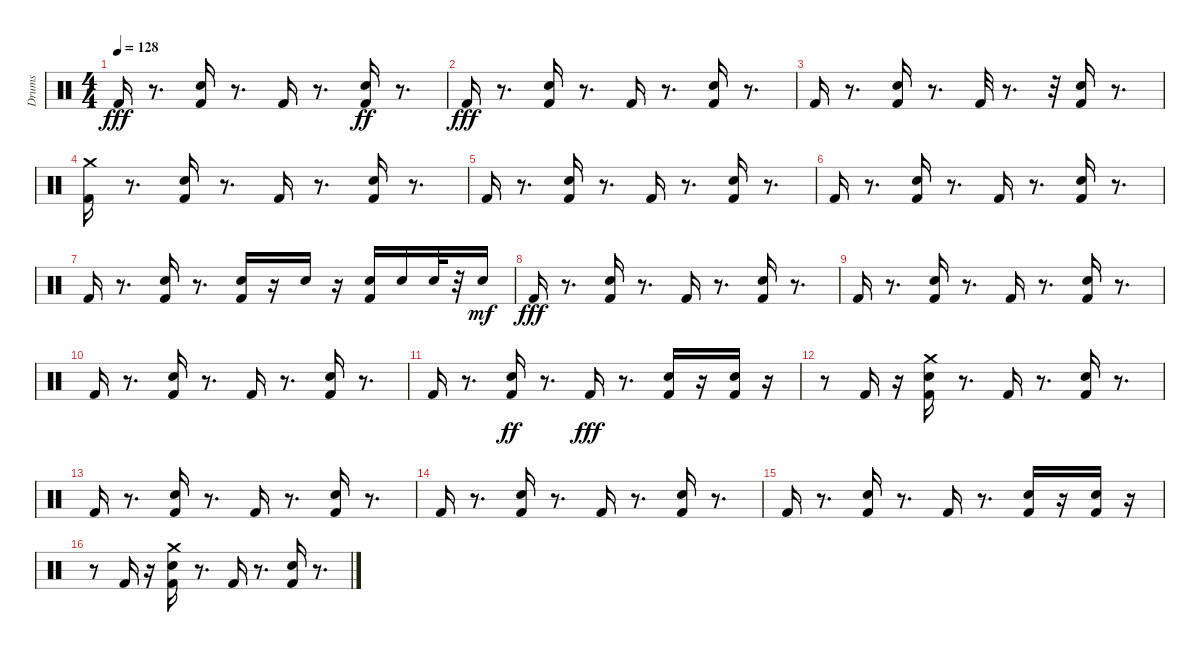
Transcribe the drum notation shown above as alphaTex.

\track ("Drums" "Drums") {instrument percussion}
\staff {score}
\articulation defaults
\ts (4 4)
\tempo 128
\clef neutral
\ks c "Kick (hit) 2".16{dy fff}
r.8{d} ("Kick (hit) 2" "Electric Snare (hit)").16 r.8{d} "Kick (hit) 2".16 r.8{d} ("Kick (hit) 2" "Electric Snare (hit)").16{dy ff} r.8{d} |
"Kick (hit) 2".16{dy fff} r.8{d} ("Kick (hit) 2" "Electric Snare (hit)").16 r.8{d} "Kick (hit) 2".16 r.8{d} ("Kick (hit) 2" "Electric Snare (hit)").16 r.8{d} |
"Kick (hit) 2".16 r.8{d} ("Kick (hit) 2" "Electric Snare (hit)").16 r.8{d} "Kick (hit) 2".32 r.8{d} r.32 ("Kick (hit) 2" "Electric Snare (hit)").16 r.8{d} |
("Crash medium (hit)" "Kick (hit) 2").16 r.8{d} ("Kick (hit) 2" "Electric Snare (hit)").16 r.8{d} "Kick (hit) 2".16 r.8{d} ("Kick (hit) 2" "Electric Snare (hit)").16 r.8{d} |
"Kick (hit) 2".16 r.8{d} ("Kick (hit) 2" "Electric Snare (hit)").16 r.8{d} "Kick (hit) 2".16 r.8{d} ("Kick (hit) 2" "Electric Snare (hit)").16 r.8{d} |
"Kick (hit) 2".16 r.8{d} ("Kick (hit) 2" "Electric Snare (hit)").16 r.8{d} "Kick (hit) 2".16 r.8{d} ("Kick (hit) 2" "Electric Snare (hit)").16 r.8{d} |
"Kick (hit) 2".16 r.8{d} ("Kick (hit) 2" "Electric Snare (hit)").16 r.8{d} ("Kick (hit) 2" "Electric Snare (hit)").16 r.16 "Electric Snare (hit)".16 r.16 ("Kick (hit) 2" "Electric Snare (hit)").16 "Electric Snare (hit)".16 "Electric Snare (hit)".32 r.32 "Electric Snare (hit)".16{dy mf} |
"Kick (hit) 2".16{dy fff} r.8{d} ("Kick (hit) 2" "Electric Snare (hit)").16 r.8{d} "Kick (hit) 2".16 r.8{d} ("Kick (hit) 2" "Electric Snare (hit)").16 r.8{d} |
"Kick (hit) 2".16 r.8{d} ("Kick (hit) 2" "Electric Snare (hit)").16 r.8{d} "Kick (hit) 2".16 r.8{d} ("Kick (hit) 2" "Electric Snare (hit)").16 r.8{d} |
"Kick (hit) 2".16 r.8{d} ("Kick (hit) 2" "Electric Snare (hit)").16 r.8{d} "Kick (hit) 2".16 r.8{d} ("Kick (hit) 2" "Electric Snare (hit)").16 r.8{d} |
"Kick (hit) 2".16 r.8{d} ("Kick (hit) 2" "Electric Snare (hit)").16{dy ff} r.8{d} "Kick (hit) 2".16{dy fff} r.8{d} ("Kick (hit) 2" "Electric Snare (hit)").16 r.16 ("Kick (hit) 2" "Electric Snare (hit)").16 r.16 |
r.8 "Kick (hit) 2".16 r.16 ("Crash medium (hit)" "Kick (hit) 2" "Electric Snare (hit)").16 r.8{d} "Kick (hit) 2".16 r.8{d} ("Kick (hit) 2" "Electric Snare (hit)").16 r.8{d} |
"Kick (hit) 2".16 r.8{d} ("Kick (hit) 2" "Electric Snare (hit)").16 r.8{d} "Kick (hit) 2".16 r.8{d} ("Kick (hit) 2" "Electric Snare (hit)").16 r.8{d} |
"Kick (hit) 2".16 r.8{d} ("Kick (hit) 2" "Electric Snare (hit)").16 r.8{d} "Kick (hit) 2".16 r.8{d} ("Kick (hit) 2" "Electric Snare (hit)").16 r.8{d} |
"Kick (hit) 2".16 r.8{d} ("Kick (hit) 2" "Electric Snare (hit)").16 r.8{d} "Kick (hit) 2".16 r.8{d} ("Kick (hit) 2" "Electric Snare (hit)").16 r.16 ("Kick (hit) 2" "Electric Snare (hit)").16 r.16 |
r.8 "Kick (hit) 2".16 r.16 ("Crash medium (hit)" "Kick (hit) 2" "Electric Snare (hit)").16 r.8{d} "Kick (hit) 2".16 r.8{d} ("Kick (hit) 2" "Electric Snare (hit)").16 r.8{d}
